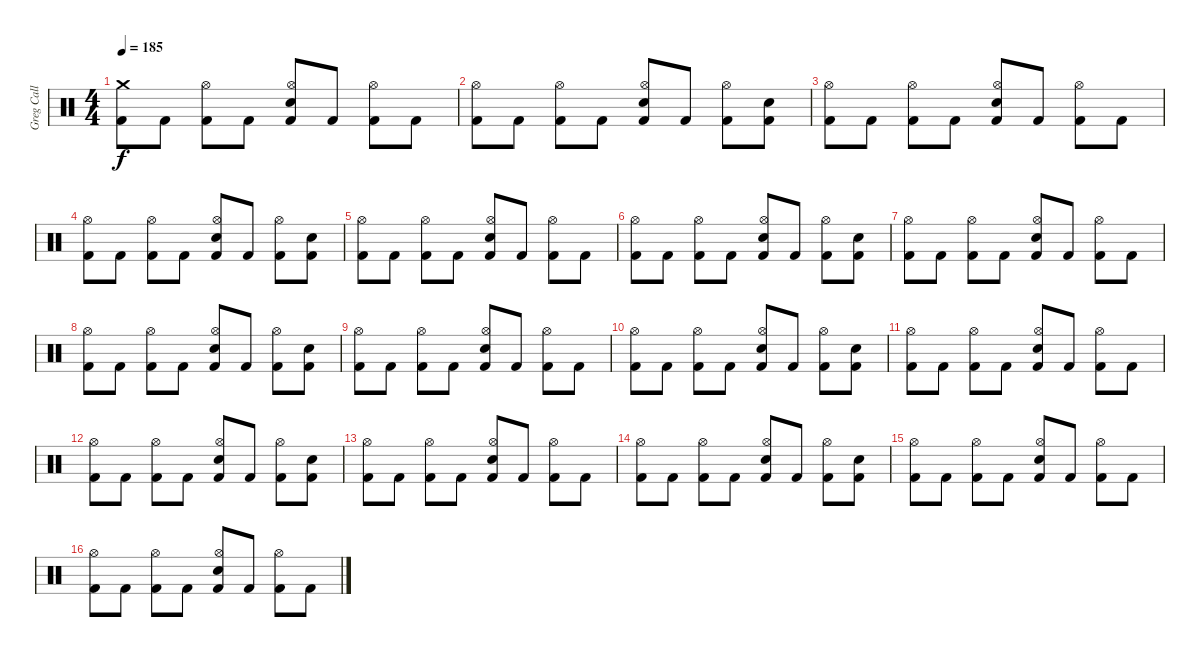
\track ("Greg Call (Drums)" "Greg Call ") {instrument percussion}
\staff {score}
\articulation defaults
\ts (4 4)
\tempo 185
\clef neutral
\ks c
("Crash medium (hit)" "Kick (hit) 2").8{dy f} "Kick (hit) 2".8 ("Hi-Hat (open)" "Kick (hit) 2").8 "Kick (hit) 2".8 ("Snare (hit) 2" "Hi-Hat (open)" "Kick (hit) 2").8 "Kick (hit) 2".8 ("Hi-Hat (open)" "Kick (hit) 2").8 "Kick (hit) 2".8 |
("Hi-Hat (open)" "Kick (hit) 2").8 "Kick (hit) 2".8 ("Hi-Hat (open)" "Kick (hit) 2").8 "Kick (hit) 2".8 ("Snare (hit) 2" "Hi-Hat (open)" "Kick (hit) 2").8 "Kick (hit) 2".8 ("Hi-Hat (open)" "Kick (hit) 2").8 ("Snare (hit) 2" "Kick (hit) 2").8 |
("Hi-Hat (open)" "Kick (hit) 2").8 "Kick (hit) 2".8 ("Hi-Hat (open)" "Kick (hit) 2").8 "Kick (hit) 2".8 ("Snare (hit) 2" "Hi-Hat (open)" "Kick (hit) 2").8 "Kick (hit) 2".8 ("Hi-Hat (open)" "Kick (hit) 2").8 "Kick (hit) 2".8 |
("Hi-Hat (open)" "Kick (hit) 2").8 "Kick (hit) 2".8 ("Hi-Hat (open)" "Kick (hit) 2").8 "Kick (hit) 2".8 ("Snare (hit) 2" "Hi-Hat (open)" "Kick (hit) 2").8 "Kick (hit) 2".8 ("Hi-Hat (open)" "Kick (hit) 2").8 ("Snare (hit) 2" "Kick (hit) 2").8 |
("Hi-Hat (open)" "Kick (hit) 2").8 "Kick (hit) 2".8 ("Hi-Hat (open)" "Kick (hit) 2").8 "Kick (hit) 2".8 ("Snare (hit) 2" "Hi-Hat (open)" "Kick (hit) 2").8 "Kick (hit) 2".8 ("Hi-Hat (open)" "Kick (hit) 2").8 "Kick (hit) 2".8 |
("Hi-Hat (open)" "Kick (hit) 2").8 "Kick (hit) 2".8 ("Hi-Hat (open)" "Kick (hit) 2").8 "Kick (hit) 2".8 ("Snare (hit) 2" "Hi-Hat (open)" "Kick (hit) 2").8 "Kick (hit) 2".8 ("Hi-Hat (open)" "Kick (hit) 2").8 ("Snare (hit) 2" "Kick (hit) 2").8 |
("Hi-Hat (open)" "Kick (hit) 2").8 "Kick (hit) 2".8 ("Hi-Hat (open)" "Kick (hit) 2").8 "Kick (hit) 2".8 ("Snare (hit) 2" "Hi-Hat (open)" "Kick (hit) 2").8 "Kick (hit) 2".8 ("Hi-Hat (open)" "Kick (hit) 2").8 "Kick (hit) 2".8 |
("Hi-Hat (open)" "Kick (hit) 2").8 "Kick (hit) 2".8 ("Hi-Hat (open)" "Kick (hit) 2").8 "Kick (hit) 2".8 ("Snare (hit) 2" "Hi-Hat (open)" "Kick (hit) 2").8 "Kick (hit) 2".8 ("Hi-Hat (open)" "Kick (hit) 2").8 ("Snare (hit) 2" "Kick (hit) 2").8 |
("Hi-Hat (open)" "Kick (hit) 2").8 "Kick (hit) 2".8 ("Hi-Hat (open)" "Kick (hit) 2").8 "Kick (hit) 2".8 ("Snare (hit) 2" "Hi-Hat (open)" "Kick (hit) 2").8 "Kick (hit) 2".8 ("Hi-Hat (open)" "Kick (hit) 2").8 "Kick (hit) 2".8 |
("Hi-Hat (open)" "Kick (hit) 2").8 "Kick (hit) 2".8 ("Hi-Hat (open)" "Kick (hit) 2").8 "Kick (hit) 2".8 ("Snare (hit) 2" "Hi-Hat (open)" "Kick (hit) 2").8 "Kick (hit) 2".8 ("Hi-Hat (open)" "Kick (hit) 2").8 ("Snare (hit) 2" "Kick (hit) 2").8 |
("Hi-Hat (open)" "Kick (hit) 2").8 "Kick (hit) 2".8 ("Hi-Hat (open)" "Kick (hit) 2").8 "Kick (hit) 2".8 ("Snare (hit) 2" "Hi-Hat (open)" "Kick (hit) 2").8 "Kick (hit) 2".8 ("Hi-Hat (open)" "Kick (hit) 2").8 "Kick (hit) 2".8 |
("Hi-Hat (open)" "Kick (hit) 2").8 "Kick (hit) 2".8 ("Hi-Hat (open)" "Kick (hit) 2").8 "Kick (hit) 2".8 ("Snare (hit) 2" "Hi-Hat (open)" "Kick (hit) 2").8 "Kick (hit) 2".8 ("Hi-Hat (open)" "Kick (hit) 2").8 ("Snare (hit) 2" "Kick (hit) 2").8 |
("Hi-Hat (open)" "Kick (hit) 2").8 "Kick (hit) 2".8 ("Hi-Hat (open)" "Kick (hit) 2").8 "Kick (hit) 2".8 ("Snare (hit) 2" "Hi-Hat (open)" "Kick (hit) 2").8 "Kick (hit) 2".8 ("Hi-Hat (open)" "Kick (hit) 2").8 "Kick (hit) 2".8 |
("Hi-Hat (open)" "Kick (hit) 2").8 "Kick (hit) 2".8 ("Hi-Hat (open)" "Kick (hit) 2").8 "Kick (hit) 2".8 ("Snare (hit) 2" "Hi-Hat (open)" "Kick (hit) 2").8 "Kick (hit) 2".8 ("Hi-Hat (open)" "Kick (hit) 2").8 ("Snare (hit) 2" "Kick (hit) 2").8 |
("Hi-Hat (open)" "Kick (hit) 2").8 "Kick (hit) 2".8 ("Hi-Hat (open)" "Kick (hit) 2").8 "Kick (hit) 2".8 ("Snare (hit) 2" "Hi-Hat (open)" "Kick (hit) 2").8 "Kick (hit) 2".8 ("Hi-Hat (open)" "Kick (hit) 2").8 "Kick (hit) 2".8 |
("Hi-Hat (open)" "Kick (hit) 2").8 "Kick (hit) 2".8 ("Hi-Hat (open)" "Kick (hit) 2").8 "Kick (hit) 2".8 ("Snare (hit) 2" "Hi-Hat (open)" "Kick (hit) 2").8 "Kick (hit) 2".8 ("Hi-Hat (open)" "Kick (hit) 2").8 "Kick (hit) 2".8
